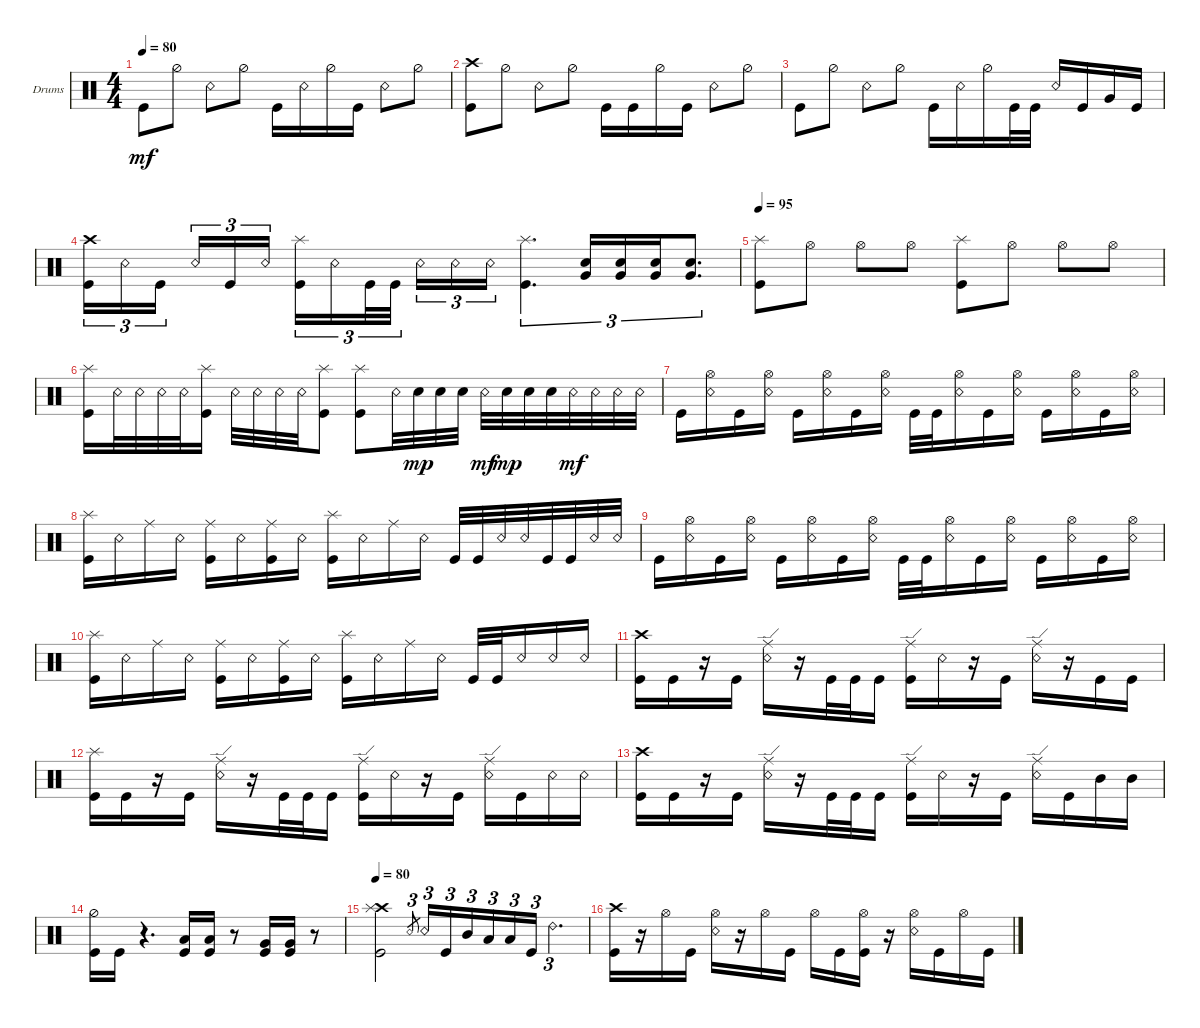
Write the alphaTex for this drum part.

\defaultSystemsLayout 4
\bracketExtendMode groupsimilarinstruments
\firstSystemTrackNameOrientation horizontal
\otherSystemsTrackNameOrientation horizontal
\track ("Drumkit" "Drums") {instrument percussion}
\staff {score}
\articulation defaults
\ts (4 4)
\tempo 80
\clef neutral
\ks c "Kick (hit)".8{dy mf} "Hi-Hat (half)".8 "Snare (rim shot)".8 "Hi-Hat (half)".8 "Kick (hit)".16 "Snare (rim shot)".16 "Hi-Hat (half)".16 "Kick (hit)".16 "Snare (rim shot)".8 "Hi-Hat (half)".8
|
("Kick (hit)" "Crash high (hit)").8 "Hi-Hat (half)".8 "Snare (rim shot)".8 "Hi-Hat (half)".8 "Kick (hit)".16 "Kick (hit)".16 "Hi-Hat (half)".16 "Kick (hit)".16 "Snare (rim shot)".8 "Hi-Hat (half)".8 |
"Kick (hit)".8 "Hi-Hat (half)".8 "Snare (rim shot)".8 "Hi-Hat (half)".8 "Kick (hit)".16 "Snare (rim shot)".16 "Hi-Hat (half)".16 "Kick (hit)".32 "Kick (hit)".32 "Snare (rim shot)".16 "Kick (hit)".16 "Very Low Tom (hit)".16 "Kick (hit)".16 |
("Kick (hit)" "Crash high (hit)").16{tu (3 2)} "Snare (rim shot)".16{tu (3 2)} "Kick (hit)".16{tu (3 2)} "Snare (rim shot)".16{tu (3 2)} "Kick (hit)".16{tu (3 2)} "Snare (rim shot)".16{tu (3 2)} ("Kick (hit)" "Splash (hit)").16{tu (3 2)} "Snare (rim shot)".16{tu (3 2)} "Kick (hit)".32{tu (3 2)} "Kick (hit)".32{tu (3 2)} "Snare (rim shot)".16{tu (3 2)} "Snare (rim shot)".16{tu (3 2)} "Snare (rim shot)".16{tu (3 2)} ("Kick (hit)" "Splash (hit)").4{d tu (3 2)} ("Snare (hit) 2" "Very Low Tom (hit)").16{tu (3 2)} ("Very Low Tom (hit)" "Snare (hit) 2").16{tu (3 2)} ("Snare (hit) 2" "Very Low Tom (hit)").16{tu (3 2)} ("Very Low Tom (hit)" "Snare (hit) 2").8{d tu (3 2)} |
\tempo 95
("Kick (hit)" "Splash (hit)").8 "Hi-Hat (open)".8 "Hi-Hat (open)".8 "Hi-Hat (open)".8 ("Kick (hit)" "Splash (hit)").8 "Hi-Hat (open)".8 "Hi-Hat (open)".8 "Hi-Hat (open)".8 |
("Kick (hit)" "Splash (hit)").16 "Snare (rim shot)".32 "Snare (rim shot)".32 "Snare (rim shot)".32 "Snare (rim shot)".32 ("Kick (hit)" "Splash (hit)").16 "Snare (rim shot)".32 "Snare (rim shot)".32 "Snare (rim shot)".32 "Snare (rim shot)".32 ("Kick (hit)" "Splash (hit)").8 ("Kick (hit)" "Splash (hit)").8 "Snare (rim shot)".32 "Snare (hit) 2".32{dy mp} "Snare (hit) 2".32 "Snare (hit) 2".32 "Snare (rim shot)".32{dy mf} "Snare (hit) 2".32{dy mp} "Snare (hit) 2".32 "Snare (hit) 2".32 "Snare (rim shot)".32{dy mf} "Snare (rim shot)".32 "Snare (rim shot)".32 "Snare (rim shot)".32 |
"Kick (hit)".16 ("Snare (rim shot)" "Hi-Hat (open)").16 "Kick (hit)".16 ("Snare (rim shot)" "Hi-Hat (open)").16 "Kick (hit)".16 ("Snare (rim shot)" "Hi-Hat (open)").16 "Kick (hit)".16 ("Snare (rim shot)" "Hi-Hat (open)").16 "Kick (hit)".32 "Kick (hit)".32 ("Snare (rim shot)" "Hi-Hat (open)").16 "Kick (hit)".16 ("Snare (rim shot)" "Hi-Hat (open)").16 "Kick (hit)".16 ("Snare (rim shot)" "Hi-Hat (open)").16 "Kick (hit)".16 ("Snare (rim shot)" "Hi-Hat (open)").16 |
("Kick (hit)" "Splash (hit)").16 "Snare (rim shot)".16 "Ride (middle)".16 "Snare (rim shot)".16 ("Kick (hit)" "Ride (middle)").16 "Snare (rim shot)".16 ("Kick (hit)" "Ride (middle)").16 "Snare (rim shot)".16 ("Kick (hit)" "Splash (hit)").16 "Snare (rim shot)".16 "Ride (middle)".16 "Snare (rim shot)".16 "Kick (hit)".32 "Kick (hit)".32 "Snare (rim shot)".32 "Snare (rim shot)".32 "Kick (hit)".32 "Kick (hit)".32 "Snare (rim shot)".32 "Snare (rim shot)".32 |
"Kick (hit)".16 ("Snare (rim shot)" "Hi-Hat (open)").16 "Kick (hit)".16 ("Snare (rim shot)" "Hi-Hat (open)").16 "Kick (hit)".16 ("Snare (rim shot)" "Hi-Hat (open)").16 "Kick (hit)".16 ("Snare (rim shot)" "Hi-Hat (open)").16 "Kick (hit)".32 "Kick (hit)".32 ("Snare (rim shot)" "Hi-Hat (open)").16 "Kick (hit)".16 ("Snare (rim shot)" "Hi-Hat (open)").16 "Kick (hit)".16 ("Snare (rim shot)" "Hi-Hat (open)").16 "Kick (hit)".16 ("Snare (rim shot)" "Hi-Hat (open)").16 |
("Kick (hit)" "Splash (hit)").16 "Snare (rim shot)".16 "Ride (middle)".16 "Snare (rim shot)".16 ("Kick (hit)" "Ride (middle)").16 "Snare (rim shot)".16 ("Kick (hit)" "Ride (middle)").16 "Snare (rim shot)".16 ("Kick (hit)" "Splash (hit)").16 "Snare (rim shot)".16 "Ride (middle)".16 "Snare (rim shot)".16 "Kick (hit)".32 "Kick (hit)".32 "Snare (rim shot)".16 "Snare (rim shot)".16 "Snare (rim shot)".16 |
("Kick (hit)" "Crash high (hit)").16 "Kick (hit)".16 r.16 "Kick (hit)".16 ("Snare (rim shot)" "Ride (edge)").16 r.16 "Kick (hit)".32 "Kick (hit)".32 "Kick (hit)".16 ("Kick (hit)" "Ride (edge)").16 "Snare (rim shot)".16 r.16 "Kick (hit)".16 ("Ride (edge)" "Snare (rim shot)").16 r.16 "Kick (hit)".16 "Kick (hit)".16 |
("Kick (hit)" "Splash (hit)").16 "Kick (hit)".16 r.16 "Kick (hit)".16 ("Snare (rim shot)" "Ride (edge)").16 r.16 "Kick (hit)".32 "Kick (hit)".32 "Kick (hit)".16 ("Kick (hit)" "Ride (edge)").16 "Snare (rim shot)".16 r.16 "Kick (hit)".16 ("Ride (edge)" "Snare (rim shot)").16 "Kick (hit)".16 "Snare (rim shot)".16 "Snare (rim shot)".16 |
("Kick (hit)" "Crash high (hit)").16 "Kick (hit)".16 r.16 "Kick (hit)".16 ("Snare (rim shot)" "Ride (edge)").16 r.16 "Kick (hit)".32 "Kick (hit)".32 "Kick (hit)".16 ("Kick (hit)" "Ride (edge)").16 "Snare (rim shot)".16 r.16 "Kick (hit)".16 ("Ride (edge)" "Snare (rim shot)").16 "Kick (hit)".16 "Mid Tom (hit)".16 "Mid Tom (hit)".16 |
("Kick (hit)" "Hi-Hat (half)").16 "Kick (hit)".16 r.4{d} ("Low Tom (hit)" "Kick (hit)").16 ("Low Tom (hit)" "Kick (hit)").16 r.8 ("Very Low Tom (hit)" "Kick (hit)").16 ("Very Low Tom (hit)" "Kick (hit)").16 r.8 |
\tempo 80
("Kick (hit)" "Crash high (hit)" "Splash (hit)").2 "Snare (rim shot)".8{tu (3 2) gr} "Snare (rim shot)".16{tu (3 2)} "Kick (hit)".16{tu (3 2)} "Mid Tom (hit)".16{tu (3 2)} "Low Tom (hit)".16{tu (3 2)} "Low Tom (hit)".16{tu (3 2)} "Kick (hit)".16{tu (3 2)} "Ride (bell) 2".4{d tu (3 2)} |
("Kick (hit)" "Crash high (hit)").16 r.16 "Hi-Hat (open)".16 "Kick (hit)".16 ("Snare (rim shot)" "Hi-Hat (open)").16 r.16 "Hi-Hat (open)".16 "Kick (hit)".16 "Hi-Hat (open)".16 "Kick (hit)".16 ("Kick (hit)" "Hi-Hat (open)").16 r.16 ("Snare (rim shot)" "Hi-Hat (open)").16 "Kick (hit)".16 "Hi-Hat (open)".16 "Kick (hit)".16
